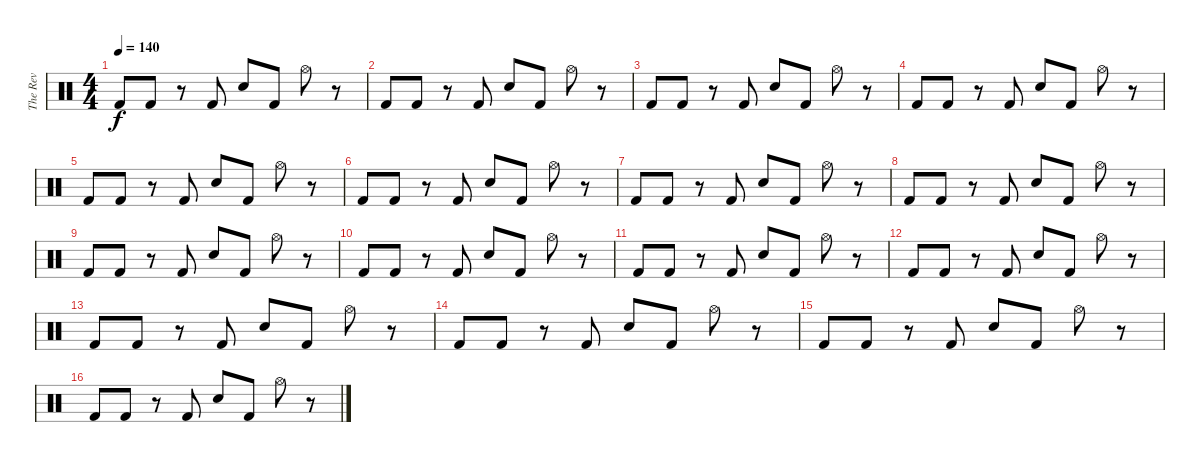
\track ("The Rev" "The Rev") {instrument percussion}
\staff {score}
\articulation defaults
\ts (4 4)
\tempo 140
\clef neutral
\ks c "Kick (hit) 2".8{dy f} "Kick (hit) 2".8
r.8 "Kick (hit) 2".8 "Snare (hit) 2".8 "Kick (hit) 2".8 "Hi-Hat (open)".8 r.8 |
"Kick (hit) 2".8 "Kick (hit) 2".8 r.8 "Kick (hit) 2".8 "Snare (hit) 2".8 "Kick (hit) 2".8 "Hi-Hat (open)".8 r.8 |
"Kick (hit) 2".8 "Kick (hit) 2".8 r.8 "Kick (hit) 2".8 "Snare (hit) 2".8 "Kick (hit) 2".8 "Hi-Hat (open)".8 r.8 |
"Kick (hit) 2".8 "Kick (hit) 2".8 r.8 "Kick (hit) 2".8 "Snare (hit) 2".8 "Kick (hit) 2".8 "Hi-Hat (open)".8 r.8 |
"Kick (hit) 2".8 "Kick (hit) 2".8 r.8 "Kick (hit) 2".8 "Snare (hit) 2".8 "Kick (hit) 2".8 "Hi-Hat (open)".8 r.8 |
"Kick (hit) 2".8 "Kick (hit) 2".8 r.8 "Kick (hit) 2".8 "Snare (hit) 2".8 "Kick (hit) 2".8 "Hi-Hat (open)".8 r.8 |
"Kick (hit) 2".8 "Kick (hit) 2".8 r.8 "Kick (hit) 2".8 "Snare (hit) 2".8 "Kick (hit) 2".8 "Hi-Hat (open)".8 r.8 |
"Kick (hit) 2".8 "Kick (hit) 2".8 r.8 "Kick (hit) 2".8 "Snare (hit) 2".8 "Kick (hit) 2".8 "Hi-Hat (open)".8 r.8 |
"Kick (hit) 2".8{volume 16} "Kick (hit) 2".8 r.8 "Kick (hit) 2".8 "Snare (hit) 2".8 "Kick (hit) 2".8 "Hi-Hat (open)".8 r.8 |
"Kick (hit) 2".8 "Kick (hit) 2".8 r.8 "Kick (hit) 2".8 "Snare (hit) 2".8 "Kick (hit) 2".8 "Hi-Hat (open)".8 r.8 |
"Kick (hit) 2".8 "Kick (hit) 2".8 r.8 "Kick (hit) 2".8 "Snare (hit) 2".8 "Kick (hit) 2".8 "Hi-Hat (open)".8 r.8 |
"Kick (hit) 2".8 "Kick (hit) 2".8 r.8 "Kick (hit) 2".8 "Snare (hit) 2".8 "Kick (hit) 2".8 "Hi-Hat (open)".8 r.8 |
"Kick (hit) 2".8 "Kick (hit) 2".8 r.8 "Kick (hit) 2".8 "Snare (hit) 2".8 "Kick (hit) 2".8 "Hi-Hat (open)".8 r.8 |
"Kick (hit) 2".8 "Kick (hit) 2".8 r.8 "Kick (hit) 2".8 "Snare (hit) 2".8 "Kick (hit) 2".8 "Hi-Hat (open)".8 r.8 |
"Kick (hit) 2".8 "Kick (hit) 2".8 r.8 "Kick (hit) 2".8 "Snare (hit) 2".8 "Kick (hit) 2".8 "Hi-Hat (open)".8 r.8 |
"Kick (hit) 2".8 "Kick (hit) 2".8 r.8 "Kick (hit) 2".8 "Snare (hit) 2".8 "Kick (hit) 2".8 "Hi-Hat (open)".8 r.8
